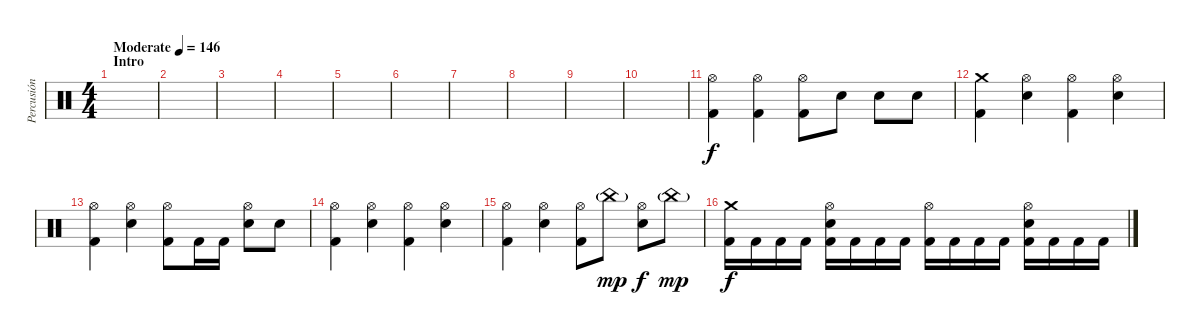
\track ("Percusión" "Percusión") {instrument percussion}
\staff {score}
\articulation defaults
\ts (4 4)
\section ("" "Intro")
\tempo (146 "Moderate")
\clef neutral
\ks c
|
|
|
|
|
|
|
|
|
|
("Hi-Hat (open)" "Kick (hit) 2").4 ("Hi-Hat (open)" "Kick (hit) 2").4 ("Hi-Hat (open)" "Kick (hit) 2").8 "Snare (hit) 2".8 "Snare (hit) 2".8 "Snare (hit) 2".8 |
("Crash medium (hit)" "Kick (hit) 2").4 ("Hi-Hat (open)" "Snare (hit) 2").4 ("Hi-Hat (open)" "Kick (hit) 2").4 ("Hi-Hat (open)" "Snare (hit) 2").4 |
("Hi-Hat (open)" "Kick (hit) 2").4 ("Hi-Hat (open)" "Snare (hit) 2").4 ("Hi-Hat (open)" "Kick (hit) 2").8 "Kick (hit) 2".16 "Kick (hit) 2".16 ("Hi-Hat (open)" "Snare (hit) 2").8 "Snare (hit) 2".8 |
("Hi-Hat (open)" "Kick (hit) 2").4 ("Hi-Hat (open)" "Snare (hit) 2").4 ("Hi-Hat (open)" "Kick (hit) 2").4 ("Hi-Hat (open)" "Snare (hit) 2").4 |
("Hi-Hat (open)" "Kick (hit) 2").4 ("Hi-Hat (open)" "Snare (hit) 2").4 ("Hi-Hat (open)" "Kick (hit) 2").8 "China (hit)"{g}.8{dy mp} ("Hi-Hat (open)" "Snare (hit) 2").8{dy f} "China (hit)"{g}.8{dy mp} |
("Crash medium (hit)" "Kick (hit) 2").16{dy f} "Kick (hit) 2".16 "Kick (hit) 2".16 "Kick (hit) 2".16 ("Hi-Hat (open)" "Snare (hit) 2" "Kick (hit) 2").16 "Kick (hit) 2".16 "Kick (hit) 2".16 "Kick (hit) 2".16 ("Hi-Hat (open)" "Kick (hit) 2").16 "Kick (hit) 2".16 "Kick (hit) 2".16 "Kick (hit) 2".16 ("Hi-Hat (open)" "Snare (hit) 2" "Kick (hit) 2").16 "Kick (hit) 2".16 "Kick (hit) 2".16 "Kick (hit) 2".16
